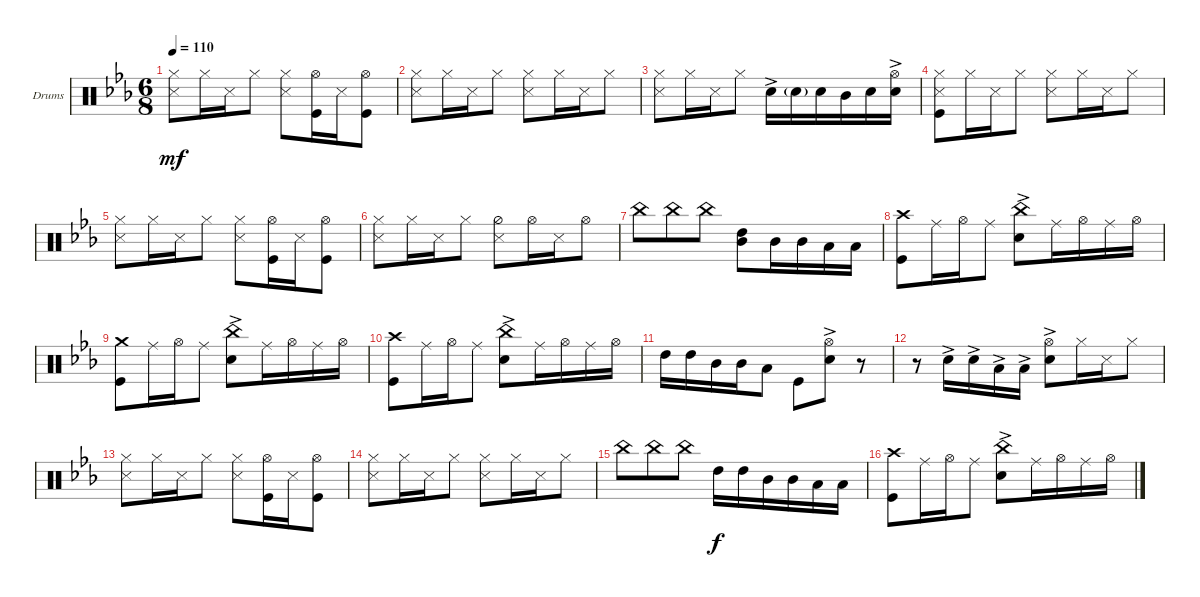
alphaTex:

\bracketExtendMode groupsimilarinstruments
\firstSystemTrackNameOrientation horizontal
\otherSystemsTrackNameOrientation horizontal
\track ("Drumkit" "Drums") {instrument percussion}
\staff {score}
\articulation defaults
\ts (6 8)
\tempo 110
\clef neutral
\ks cminor
("Snare (side stick) 3" "Hi-Hat (closed)").8{dy mf} "Hi-Hat (closed)".16 "Snare (side stick) 3".16 "Hi-Hat (closed)".8 ("Snare (side stick) 3" "Hi-Hat (closed)").8 ("Hi-Hat (open)" "Kick (hit)").16 "Snare (side stick) 3".16 ("Hi-Hat (open)" "Kick (hit)").8 |
("Snare (side stick) 3" "Hi-Hat (closed)").8 "Hi-Hat (closed)".16 "Snare (side stick) 3".16 "Hi-Hat (closed)".8 ("Snare (side stick) 3" "Hi-Hat (closed)").8 "Hi-Hat (closed)".16 "Snare (side stick) 3".16 "Hi-Hat (closed)".8 |
("Snare (side stick) 3" "Hi-Hat (closed)").8 "Hi-Hat (closed)".16 "Snare (side stick) 3".16 "Hi-Hat (closed)".8 "Snare (hit) 2"{ac}.16 "Snare (hit) 2"{g}.16 "Snare (hit) 2".16 "Mid Tom (hit)".16 "Snare (hit) 2".16 ("Snare (hit) 2"{ac} "Hi-Hat (open)").16 |
("Kick (hit)" "Snare (side stick) 3" "Hi-Hat (closed)").8 "Hi-Hat (closed)".16 "Snare (side stick) 3".16 "Hi-Hat (closed)".8 ("Snare (side stick) 3" "Hi-Hat (closed)").8 "Hi-Hat (closed)".16 "Snare (side stick) 3".16 "Hi-Hat (closed)".8 |
("Snare (side stick) 3" "Hi-Hat (closed)").8 "Hi-Hat (closed)".16 "Snare (side stick) 3".16 "Hi-Hat (closed)".8 ("Snare (side stick) 3" "Hi-Hat (closed)").8 ("Hi-Hat (open)" "Kick (hit)").16 "Snare (side stick) 3".16 ("Hi-Hat (open)" "Kick (hit)").8 |
("Snare (side stick) 3" "Hi-Hat (closed)").8 "Hi-Hat (closed)".16 "Snare (side stick) 3".16 "Hi-Hat (closed)".8 ("Snare (side stick) 3" "Hi-Hat (half)").8 "Hi-Hat (open)".16 "Snare (side stick) 3".16 "Hi-Hat (open)".8 |
"China (hit)".8 "China (hit)".8 "China (hit)".8 ("High Tom (hit)" "Mid Tom (hit)").8 "Mid Tom (hit)".16 "Mid Tom (hit)".16 "Low Tom (hit)".16 "Low Tom (hit)".16 |
("Crash high (hit)" "Kick (hit)").8 "Ride (middle)".16 "Hi-Hat (open)".16 "Ride (middle)".8 ("Snare (hit) 2"{ac} "China (hit)").8 "Ride (middle)".16 "Hi-Hat (open)".16 "Ride (middle)".16 "Hi-Hat (open)".16 |
("Kick (hit)" "Crash medium (hit)").8 "Ride (middle)".16 "Hi-Hat (open)".16 "Ride (middle)".8 ("Snare (hit) 2"{ac} "China (hit)").8 "Ride (middle)".16 "Hi-Hat (open)".16 "Ride (middle)".16 "Hi-Hat (open)".16 |
("Crash high (hit)" "Kick (hit)").8 "Ride (middle)".16 "Hi-Hat (open)".16 "Ride (middle)".8 ("Snare (hit) 2"{ac} "China (hit)").8 "Ride (middle)".16 "Hi-Hat (open)".16 "Ride (middle)".16 "Hi-Hat (open)".16 |
"High Tom (hit)".16 "High Tom (hit)".16 "Mid Tom (hit)".16 "Mid Tom (hit)".16 "Low Tom (hit)".8 "Kick (hit)".8 ("Snare (hit) 2"{ac} "Hi-Hat (open)").8 r.8 |
r.8 "Snare (hit) 2"{ac}.16 "Snare (hit) 2"{ac}.16 "Low Tom (hit)"{ac}.16 "Low Tom (hit)"{ac}.16 ("Hi-Hat (open)" "Snare (hit) 2"{ac}).8 "Hi-Hat (closed)".16 "Snare (side stick) 3".16 "Hi-Hat (closed)".8 |
("Snare (side stick) 3" "Hi-Hat (closed)").8 "Hi-Hat (closed)".16 "Snare (side stick) 3".16 "Hi-Hat (closed)".8 ("Snare (side stick) 3" "Hi-Hat (closed)").8 ("Hi-Hat (open)" "Kick (hit)").16 "Snare (side stick) 3".16 ("Hi-Hat (open)" "Kick (hit)").8 |
("Snare (side stick) 3" "Hi-Hat (closed)").8 "Hi-Hat (closed)".16 "Snare (side stick) 3".16 "Hi-Hat (closed)".8 ("Snare (side stick) 3" "Hi-Hat (closed)").8 "Hi-Hat (closed)".16 "Snare (side stick) 3".16 "Hi-Hat (closed)".8 |
"China (hit)".8 "China (hit)".8 "China (hit)".8 "High Tom (hit)".16{dy f} "High Tom (hit)".16 "Mid Tom (hit)".16 "Mid Tom (hit)".16 "Low Tom (hit)".16 "Low Tom (hit)".16 |
("Crash high (hit)" "Kick (hit)").8 "Ride (middle)".16 "Hi-Hat (open)".16 "Ride (middle)".8 ("Snare (hit) 2"{ac} "China (hit)").8 "Ride (middle)".16 "Hi-Hat (open)".16 "Ride (middle)".16 "Hi-Hat (open)".16
